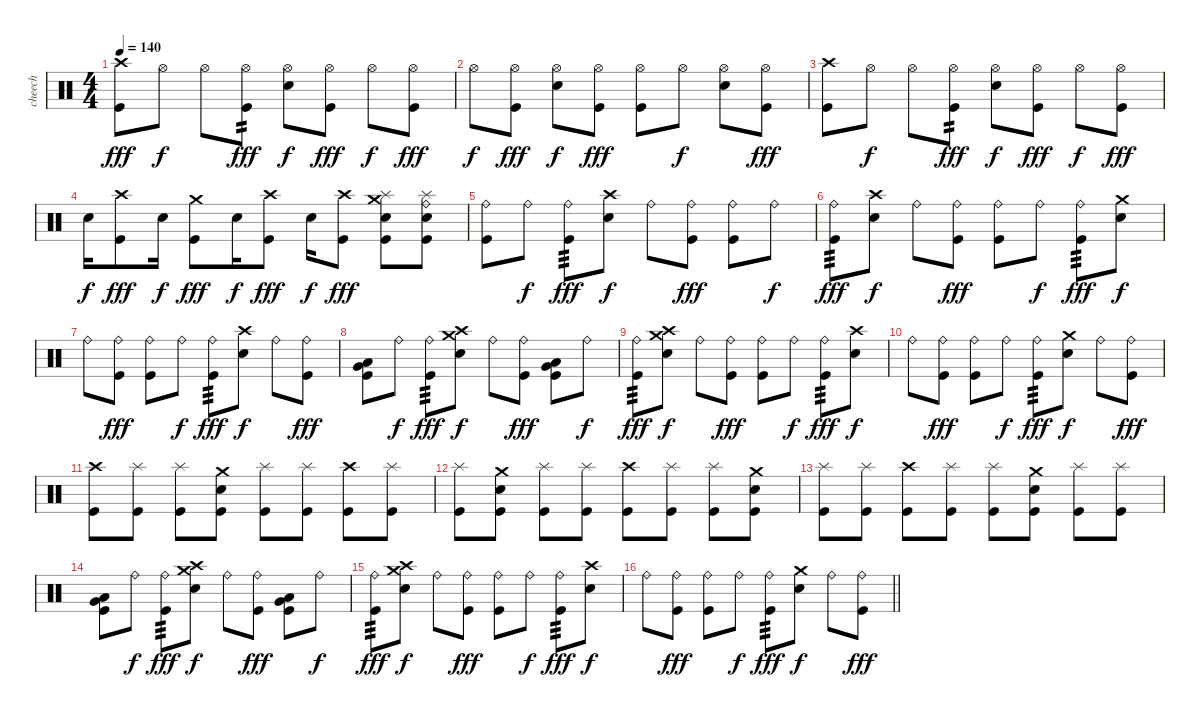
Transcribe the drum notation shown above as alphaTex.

\track ("cheech" "cheech") {solo instrument percussion}
\staff {score}
\articulation defaults
\ts (4 4)
\tempo 140
\clef neutral
\ks c
("Crash high (hit)" "Kick (hit)").8{dy fff} "Hi-Hat (open)".8{dy f} "Hi-Hat (open)".8 ("Hi-Hat (open)" "Kick (hit)").8{tp 2 dy fff} ("Hi-Hat (open)" "Electric Snare (hit)").8{dy f} ("Hi-Hat (open)" "Kick (hit)").8{dy fff} "Hi-Hat (open)".8{dy f} ("Hi-Hat (open)" "Kick (hit)").8{dy fff} |
"Hi-Hat (open)".8{dy f} ("Hi-Hat (open)" "Kick (hit)").8{dy fff} ("Hi-Hat (open)" "Electric Snare (hit)").8{dy f} ("Hi-Hat (open)" "Kick (hit)").8{dy fff} ("Hi-Hat (open)" "Kick (hit)").8 "Hi-Hat (open)".8{dy f} ("Hi-Hat (open)" "Electric Snare (hit)").8 ("Hi-Hat (open)" "Kick (hit)").8{dy fff} |
("Crash high (hit)" "Kick (hit)").8 "Hi-Hat (open)".8{dy f} "Hi-Hat (open)".8 ("Hi-Hat (open)" "Kick (hit)").8{tp 2 dy fff} ("Hi-Hat (open)" "Electric Snare (hit)").8{dy f} ("Hi-Hat (open)" "Kick (hit)").8{dy fff} "Hi-Hat (open)".8{dy f} ("Hi-Hat (open)" "Kick (hit)").8{dy fff} |
"Electric Snare (hit)".16{dy f} ("Crash high (hit)" "Kick (hit)").8{dy fff} "Electric Snare (hit)".16{dy f} ("Crash medium (hit)" "Kick (hit)").8{dy fff} "Electric Snare (hit)".16{dy f} ("Crash high (hit)" "Kick (hit)").8{dy fff} "Electric Snare (hit)".16{dy f} ("Crash high (hit)" "Kick (hit)").8{dy fff} ("Splash (hit)" "Crash medium (hit)" "Electric Snare (hit)" "Kick (hit)").8 ("Ride (bell)" "Splash (hit)" "Electric Snare (hit)" "Kick (hit)").8 |
("Ride (bell)" "Kick (hit)").8 "Ride (bell)".8{dy f} ("Ride (bell)" "Kick (hit)").8{tp 3 dy fff} ("Crash high (hit)" "Electric Snare (hit)").8{dy f} "Ride (bell)".8 ("Ride (bell)" "Kick (hit)").8{dy fff} ("Ride (bell)" "Kick (hit)").8 "Ride (bell)".8{dy f} |
("Ride (bell)" "Kick (hit)").8{tp 3 dy fff} ("Crash high (hit)" "Electric Snare (hit)").8{dy f} "Ride (bell)".8 ("Ride (bell)" "Kick (hit)").8{dy fff} ("Ride (bell)" "Kick (hit)").8 "Ride (bell)".8{dy f} ("Ride (bell)" "Kick (hit)").8{tp 3 dy fff} ("Crash medium (hit)" "Electric Snare (hit)").8{dy f} |
"Ride (bell)".8 ("Ride (bell)" "Kick (hit)").8{dy fff} ("Ride (bell)" "Kick (hit)").8 "Ride (bell)".8{dy f} ("Ride (bell)" "Kick (hit)").8{tp 3 dy fff} ("Crash high (hit)" "Electric Snare (hit)").8{dy f} "Ride (bell)".8 ("Ride (bell)" "Kick (hit)").8{dy fff} |
("Very Low Tom (hit)" "Low Floor Tom (hit)" "Kick (hit)").8 "Ride (bell)".8{dy f} ("Ride (bell)" "Kick (hit)").8{tp 3 dy fff} ("Crash high (hit)" "Crash medium (hit)" "Electric Snare (hit)").8{dy f} "Ride (bell)".8 ("Ride (bell)" "Kick (hit)").8{dy fff} ("Very Low Tom (hit)" "Low Floor Tom (hit)" "Kick (hit)").8 "Ride (bell)".8{dy f} |
("Ride (bell)" "Kick (hit)").8{tp 3 dy fff} ("Crash high (hit)" "Crash medium (hit)" "Electric Snare (hit)").8{dy f} "Ride (bell)".8 ("Ride (bell)" "Kick (hit)").8{dy fff} ("Ride (bell)" "Kick (hit)").8 "Ride (bell)".8{dy f} ("Ride (bell)" "Kick (hit)").8{tp 3 dy fff} ("Crash high (hit)" "Electric Snare (hit)").8{dy f} |
"Ride (bell)".8 ("Ride (bell)" "Kick (hit)").8{dy fff} ("Ride (bell)" "Kick (hit)").8 "Ride (bell)".8{dy f} ("Ride (bell)" "Kick (hit)").8{tp 3 dy fff} ("Crash medium (hit)" "Electric Snare (hit)").8{dy f} "Ride (bell)".8 ("Ride (bell)" "Kick (hit)").8{dy fff} |
("Crash high (hit)" "Kick (hit)").8 ("Splash (hit)" "Kick (hit)").8 ("Splash (hit)" "Kick (hit)").8 ("Crash medium (hit)" "Electric Snare (hit)" "Kick (hit)").8 ("Splash (hit)" "Kick (hit)").8 ("Splash (hit)" "Kick (hit)").8 ("Crash high (hit)" "Kick (hit)").8 ("Splash (hit)" "Kick (hit)").8 |
("Splash (hit)" "Kick (hit)").8 ("Crash medium (hit)" "Electric Snare (hit)" "Kick (hit)").8 ("Splash (hit)" "Kick (hit)").8 ("Splash (hit)" "Kick (hit)").8 ("Crash high (hit)" "Kick (hit)").8 ("Splash (hit)" "Kick (hit)").8 ("Splash (hit)" "Kick (hit)").8 ("Crash medium (hit)" "Electric Snare (hit)" "Kick (hit)").8 |
("Splash (hit)" "Kick (hit)").8 ("Splash (hit)" "Kick (hit)").8 ("Crash high (hit)" "Kick (hit)").8 ("Splash (hit)" "Kick (hit)").8 ("Splash (hit)" "Kick (hit)").8 ("Crash medium (hit)" "Electric Snare (hit)" "Kick (hit)").8 ("Splash (hit)" "Kick (hit)").8 ("Splash (hit)" "Kick (hit)").8 |
("Very Low Tom (hit)" "Low Floor Tom (hit)" "Kick (hit)").8 "Ride (bell)".8{dy f} ("Ride (bell)" "Kick (hit)").8{tp 3 dy fff} ("Crash high (hit)" "Crash medium (hit)" "Electric Snare (hit)").8{dy f} "Ride (bell)".8 ("Ride (bell)" "Kick (hit)").8{dy fff} ("Very Low Tom (hit)" "Low Floor Tom (hit)" "Kick (hit)").8 "Ride (bell)".8{dy f} |
("Ride (bell)" "Kick (hit)").8{tp 3 dy fff} ("Crash high (hit)" "Crash medium (hit)" "Electric Snare (hit)").8{dy f} "Ride (bell)".8 ("Ride (bell)" "Kick (hit)").8{dy fff} ("Ride (bell)" "Kick (hit)").8 "Ride (bell)".8{dy f} ("Ride (bell)" "Kick (hit)").8{tp 3 dy fff} ("Crash high (hit)" "Electric Snare (hit)").8{dy f} |
\barLineRight lightlight "Ride (bell)".8
("Ride (bell)" "Kick (hit)").8{dy fff} ("Ride (bell)" "Kick (hit)").8 "Ride (bell)".8{dy f} ("Ride (bell)" "Kick (hit)").8{tp 3 dy fff} ("Crash medium (hit)" "Electric Snare (hit)").8{dy f} "Ride (bell)".8 ("Ride (bell)" "Kick (hit)").8{dy fff}
